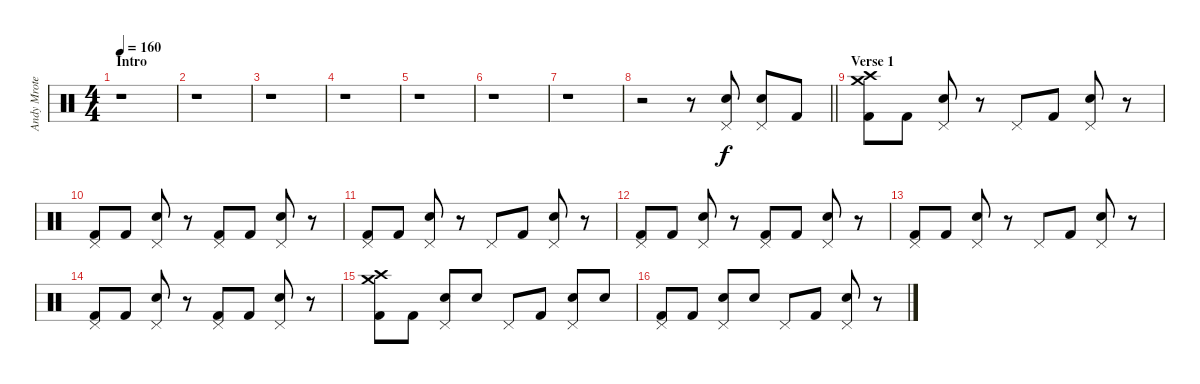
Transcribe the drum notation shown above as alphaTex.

\track ("Andy Mrotek (Drums)" "Andy Mrote") {instrument percussion}
\staff {score}
\articulation defaults
\ts (4 4)
\section ("" "Intro")
\tempo 160
\clef neutral
\ks c
r.1{dy f} |
r.1 |
r.1 |
r.1 |
r.1 |
r.1 |
r.1 |
\barLineRight lightlight
r.2 r.8 ("Pedal Hi-Hat (hit)" "Electric Snare (hit)").8 ("Pedal Hi-Hat (hit)" "Electric Snare (hit)").8 "Kick (hit) 2".8 |
\section ("" "Verse 1")
("Crash high (hit)" "Crash medium (hit)" "Kick (hit) 2").8 "Kick (hit) 2".8 ("Pedal Hi-Hat (hit)" "Electric Snare (hit)").8 r.8 "Pedal Hi-Hat (hit)".8 "Kick (hit) 2".8 ("Pedal Hi-Hat (hit)" "Electric Snare (hit)").8 r.8 |
("Pedal Hi-Hat (hit)" "Kick (hit) 2").8 "Kick (hit) 2".8 ("Pedal Hi-Hat (hit)" "Electric Snare (hit)").8 r.8 ("Pedal Hi-Hat (hit)" "Kick (hit) 2").8 "Kick (hit) 2".8 ("Pedal Hi-Hat (hit)" "Electric Snare (hit)").8 r.8 |
("Pedal Hi-Hat (hit)" "Kick (hit) 2").8 "Kick (hit) 2".8 ("Pedal Hi-Hat (hit)" "Electric Snare (hit)").8 r.8 "Pedal Hi-Hat (hit)".8 "Kick (hit) 2".8 ("Pedal Hi-Hat (hit)" "Electric Snare (hit)").8 r.8 |
("Pedal Hi-Hat (hit)" "Kick (hit) 2").8 "Kick (hit) 2".8 ("Pedal Hi-Hat (hit)" "Electric Snare (hit)").8 r.8 ("Pedal Hi-Hat (hit)" "Kick (hit) 2").8 "Kick (hit) 2".8 ("Pedal Hi-Hat (hit)" "Electric Snare (hit)").8 r.8 |
("Pedal Hi-Hat (hit)" "Kick (hit) 2").8 "Kick (hit) 2".8 ("Pedal Hi-Hat (hit)" "Electric Snare (hit)").8 r.8 "Pedal Hi-Hat (hit)".8 "Kick (hit) 2".8 ("Pedal Hi-Hat (hit)" "Electric Snare (hit)").8 r.8 |
("Pedal Hi-Hat (hit)" "Kick (hit) 2").8 "Kick (hit) 2".8 ("Pedal Hi-Hat (hit)" "Electric Snare (hit)").8 r.8 ("Pedal Hi-Hat (hit)" "Kick (hit) 2").8 "Kick (hit) 2".8 ("Pedal Hi-Hat (hit)" "Electric Snare (hit)").8 r.8 |
("Crash high (hit)" "Crash medium (hit)" "Kick (hit) 2").8 "Kick (hit) 2".8 ("Pedal Hi-Hat (hit)" "Electric Snare (hit)").8 "Electric Snare (hit)".8 "Pedal Hi-Hat (hit)".8 "Kick (hit) 2".8 ("Pedal Hi-Hat (hit)" "Electric Snare (hit)").8 "Electric Snare (hit)".8 |
("Pedal Hi-Hat (hit)" "Kick (hit) 2").8 "Kick (hit) 2".8 ("Pedal Hi-Hat (hit)" "Electric Snare (hit)").8 "Electric Snare (hit)".8 "Pedal Hi-Hat (hit)".8 "Kick (hit) 2".8 ("Pedal Hi-Hat (hit)" "Electric Snare (hit)").8 r.8
